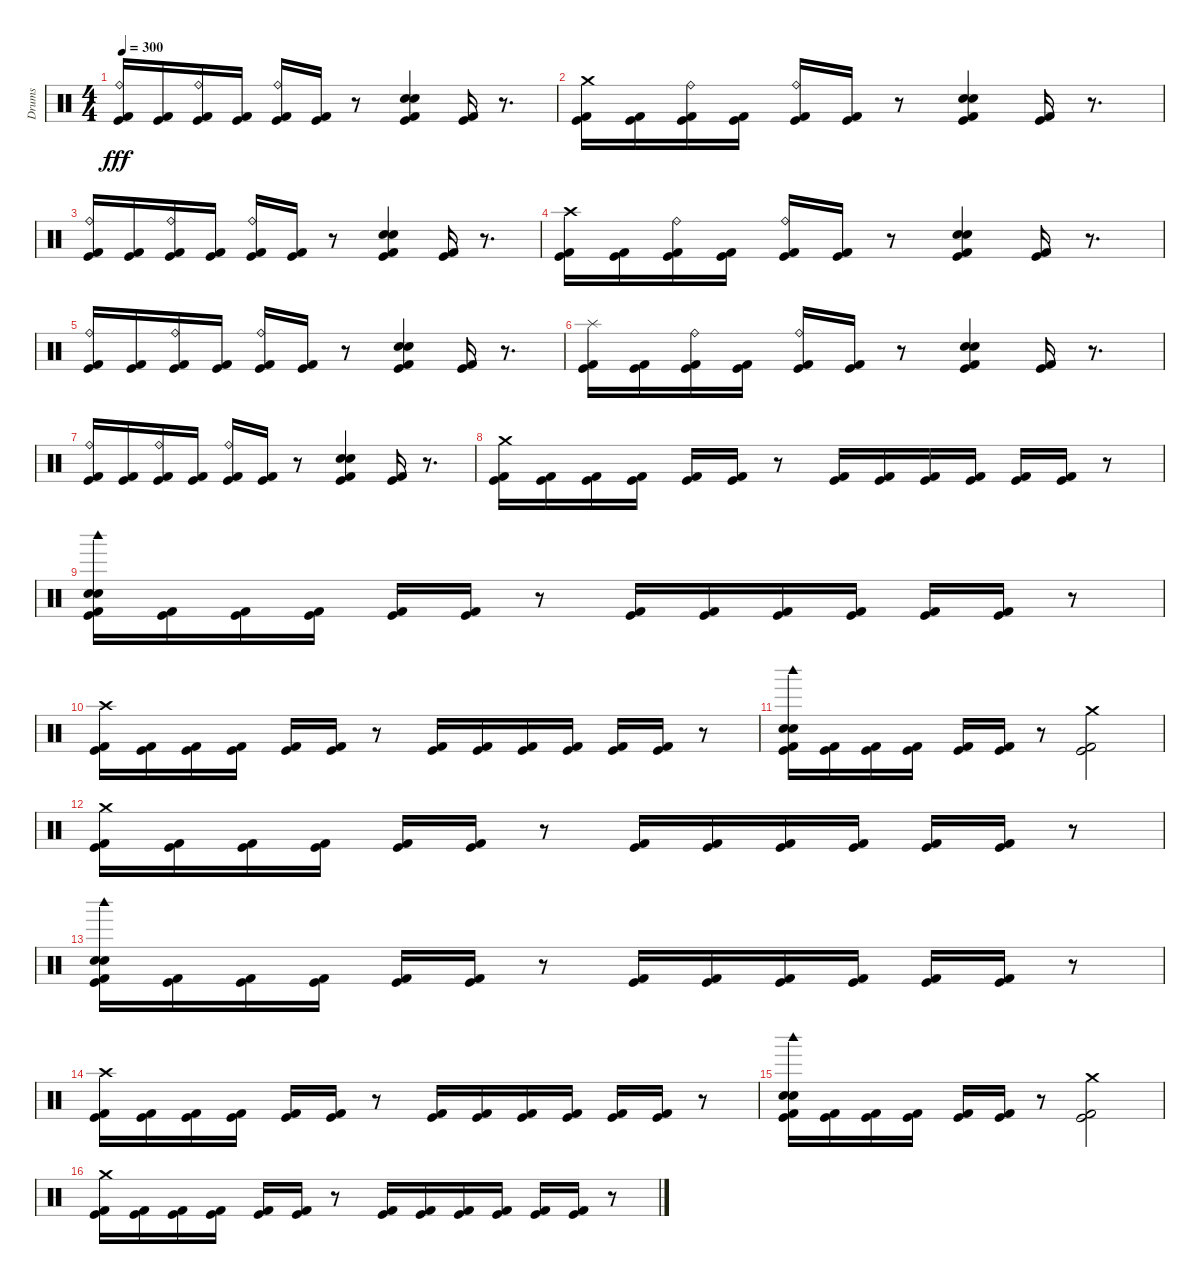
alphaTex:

\track ("Drums" "Drums") {instrument percussion}
\staff {score}
\articulation defaults
\ts (4 4)
\tempo 300
\clef neutral
\ks c
("Kick (hit) 2" "Ride (bell)" "Kick (hit)").16{dy fff} ("Kick (hit) 2" "Kick (hit)").16 ("Kick (hit) 2" "Ride (bell)" "Kick (hit)").16 ("Kick (hit) 2" "Kick (hit)").16 ("Kick (hit) 2" "Ride (bell)" "Kick (hit)").16 ("Kick (hit) 2" "Kick (hit)").16 r.8 ("Kick (hit) 2" "Snare (hit) 2" "Electric Snare (hit)" "Kick (hit)").4 ("Kick (hit) 2" "Kick (hit)").16 r.8{d} |
("Kick (hit) 2" "Crash medium (hit)" "Kick (hit)").16 ("Kick (hit) 2" "Kick (hit)").16 ("Kick (hit) 2" "Ride (bell)" "Kick (hit)").16 ("Kick (hit) 2" "Kick (hit)").16 ("Kick (hit) 2" "Ride (bell)" "Kick (hit)").16 ("Kick (hit) 2" "Kick (hit)").16 r.8 ("Kick (hit) 2" "Snare (hit) 2" "Electric Snare (hit)" "Kick (hit)").4 ("Kick (hit) 2" "Kick (hit)").16 r.8{d} |
("Kick (hit) 2" "Ride (bell)" "Kick (hit)").16 ("Kick (hit) 2" "Kick (hit)").16 ("Kick (hit) 2" "Ride (bell)" "Kick (hit)").16 ("Kick (hit) 2" "Kick (hit)").16 ("Kick (hit) 2" "Ride (bell)" "Kick (hit)").16 ("Kick (hit) 2" "Kick (hit)").16 r.8 ("Kick (hit) 2" "Snare (hit) 2" "Electric Snare (hit)" "Kick (hit)").4 ("Kick (hit) 2" "Kick (hit)").16 r.8{d} |
("Kick (hit) 2" "Crash high (hit)" "Kick (hit)").16 ("Kick (hit) 2" "Kick (hit)").16 ("Kick (hit) 2" "Ride (bell)" "Kick (hit)").16 ("Kick (hit) 2" "Kick (hit)").16 ("Kick (hit) 2" "Ride (bell)" "Kick (hit)").16 ("Kick (hit) 2" "Kick (hit)").16 r.8 ("Kick (hit) 2" "Snare (hit) 2" "Electric Snare (hit)" "Kick (hit)").4 ("Kick (hit) 2" "Kick (hit)").16 r.8{d} |
("Kick (hit) 2" "Ride (bell)" "Kick (hit)").16 ("Kick (hit) 2" "Kick (hit)").16 ("Kick (hit) 2" "Ride (bell)" "Kick (hit)").16 ("Kick (hit) 2" "Kick (hit)").16 ("Kick (hit) 2" "Ride (bell)" "Kick (hit)").16 ("Kick (hit) 2" "Kick (hit)").16 r.8 ("Kick (hit) 2" "Electric Snare (hit)" "Snare (hit) 2" "Kick (hit)").4 ("Kick (hit) 2" "Kick (hit)").16 r.8{d} |
("Kick (hit)" "Kick (hit) 2" "Splash (hit)").16 ("Kick (hit) 2" "Kick (hit)").16 ("Kick (hit) 2" "Ride (bell)" "Kick (hit)").16 ("Kick (hit) 2" "Kick (hit)").16 ("Kick (hit) 2" "Ride (bell)" "Kick (hit)").16 ("Kick (hit) 2" "Kick (hit)").16 r.8 ("Kick (hit) 2" "Snare (hit) 2" "Electric Snare (hit)" "Kick (hit)").4 ("Kick (hit) 2" "Kick (hit)").16 r.8{d} |
("Kick (hit) 2" "Ride (bell)" "Kick (hit)").16 ("Kick (hit) 2" "Kick (hit)").16 ("Kick (hit) 2" "Ride (bell)" "Kick (hit)").16 ("Kick (hit) 2" "Kick (hit)").16 ("Kick (hit) 2" "Ride (bell)" "Kick (hit)").16 ("Kick (hit) 2" "Kick (hit)").16 r.8 ("Kick (hit) 2" "Snare (hit) 2" "Electric Snare (hit)" "Kick (hit)").4 ("Kick (hit) 2" "Kick (hit)").16 r.8{d} |
("Kick (hit) 2" "Crash medium (hit)" "Kick (hit)").16 ("Kick (hit) 2" "Kick (hit)").16 ("Kick (hit) 2" "Kick (hit)").16 ("Kick (hit) 2" "Kick (hit)").16 ("Kick (hit) 2" "Kick (hit)").16 ("Kick (hit) 2" "Kick (hit)").16 r.8 ("Kick (hit)" "Kick (hit) 2").16 ("Kick (hit)" "Kick (hit) 2").16 ("Kick (hit)" "Kick (hit) 2").16 ("Kick (hit)" "Kick (hit) 2").16 ("Kick (hit)" "Kick (hit) 2").16 ("Kick (hit)" "Kick (hit) 2").16 r.8 |
("Kick (hit)" "Electric Snare (hit)" "Snare (hit) 2" "Woodblock high (hit)" "Kick (hit) 2").16 ("Kick (hit)" "Kick (hit) 2").16 ("Kick (hit)" "Kick (hit) 2").16 ("Kick (hit)" "Kick (hit) 2").16 ("Kick (hit)" "Kick (hit) 2").16 ("Kick (hit)" "Kick (hit) 2").16 r.8 ("Kick (hit)" "Kick (hit) 2").16 ("Kick (hit)" "Kick (hit) 2").16 ("Kick (hit)" "Kick (hit) 2").16 ("Kick (hit)" "Kick (hit) 2").16 ("Kick (hit)" "Kick (hit) 2").16 ("Kick (hit)" "Kick (hit) 2").16 r.8 |
("Kick (hit)" "Crash high (hit)" "Kick (hit) 2").16 ("Kick (hit)" "Kick (hit) 2").16 ("Kick (hit)" "Kick (hit) 2").16 ("Kick (hit)" "Kick (hit) 2").16 ("Kick (hit)" "Kick (hit) 2").16 ("Kick (hit)" "Kick (hit) 2").16 r.8 ("Kick (hit)" "Kick (hit) 2").16 ("Kick (hit)" "Kick (hit) 2").16 ("Kick (hit)" "Kick (hit) 2").16 ("Kick (hit)" "Kick (hit) 2").16 ("Kick (hit)" "Kick (hit) 2").16 ("Kick (hit)" "Kick (hit) 2").16 r.8 |
("Kick (hit)" "Electric Snare (hit)" "Snare (hit) 2" "Woodblock high (hit)" "Kick (hit) 2").16 ("Kick (hit)" "Kick (hit) 2").16 ("Kick (hit)" "Kick (hit) 2").16 ("Kick (hit)" "Kick (hit) 2").16 ("Kick (hit)" "Kick (hit) 2").16 ("Kick (hit)" "Kick (hit) 2").16 r.8 ("Kick (hit) 2" "Crash medium (hit)" "Kick (hit)").2 |
("Kick (hit) 2" "Crash medium (hit)" "Kick (hit)").16 ("Kick (hit) 2" "Kick (hit)").16 ("Kick (hit) 2" "Kick (hit)").16 ("Kick (hit) 2" "Kick (hit)").16 ("Kick (hit) 2" "Kick (hit)").16 ("Kick (hit) 2" "Kick (hit)").16 r.8 ("Kick (hit)" "Kick (hit) 2").16 ("Kick (hit)" "Kick (hit) 2").16 ("Kick (hit)" "Kick (hit) 2").16 ("Kick (hit)" "Kick (hit) 2").16 ("Kick (hit)" "Kick (hit) 2").16 ("Kick (hit)" "Kick (hit) 2").16 r.8 |
("Kick (hit)" "Electric Snare (hit)" "Snare (hit) 2" "Woodblock high (hit)" "Kick (hit) 2").16 ("Kick (hit)" "Kick (hit) 2").16 ("Kick (hit)" "Kick (hit) 2").16 ("Kick (hit)" "Kick (hit) 2").16 ("Kick (hit)" "Kick (hit) 2").16 ("Kick (hit)" "Kick (hit) 2").16 r.8 ("Kick (hit)" "Kick (hit) 2").16 ("Kick (hit)" "Kick (hit) 2").16 ("Kick (hit)" "Kick (hit) 2").16 ("Kick (hit)" "Kick (hit) 2").16 ("Kick (hit)" "Kick (hit) 2").16 ("Kick (hit)" "Kick (hit) 2").16 r.8 |
("Kick (hit)" "Crash high (hit)" "Kick (hit) 2").16 ("Kick (hit)" "Kick (hit) 2").16 ("Kick (hit)" "Kick (hit) 2").16 ("Kick (hit)" "Kick (hit) 2").16 ("Kick (hit)" "Kick (hit) 2").16 ("Kick (hit)" "Kick (hit) 2").16 r.8 ("Kick (hit)" "Kick (hit) 2").16 ("Kick (hit)" "Kick (hit) 2").16 ("Kick (hit)" "Kick (hit) 2").16 ("Kick (hit)" "Kick (hit) 2").16 ("Kick (hit)" "Kick (hit) 2").16 ("Kick (hit)" "Kick (hit) 2").16 r.8 |
("Kick (hit)" "Electric Snare (hit)" "Snare (hit) 2" "Woodblock high (hit)" "Kick (hit) 2").16 ("Kick (hit)" "Kick (hit) 2").16 ("Kick (hit)" "Kick (hit) 2").16 ("Kick (hit)" "Kick (hit) 2").16 ("Kick (hit)" "Kick (hit) 2").16 ("Kick (hit)" "Kick (hit) 2").16 r.8 ("Kick (hit) 2" "Crash medium (hit)" "Kick (hit)").2 |
("Kick (hit) 2" "Crash medium (hit)" "Kick (hit)").16 ("Kick (hit) 2" "Kick (hit)").16 ("Kick (hit) 2" "Kick (hit)").16 ("Kick (hit) 2" "Kick (hit)").16 ("Kick (hit) 2" "Kick (hit)").16 ("Kick (hit) 2" "Kick (hit)").16 r.8 ("Kick (hit)" "Kick (hit) 2").16 ("Kick (hit)" "Kick (hit) 2").16 ("Kick (hit)" "Kick (hit) 2").16 ("Kick (hit)" "Kick (hit) 2").16 ("Kick (hit)" "Kick (hit) 2").16 ("Kick (hit)" "Kick (hit) 2").16 r.8
